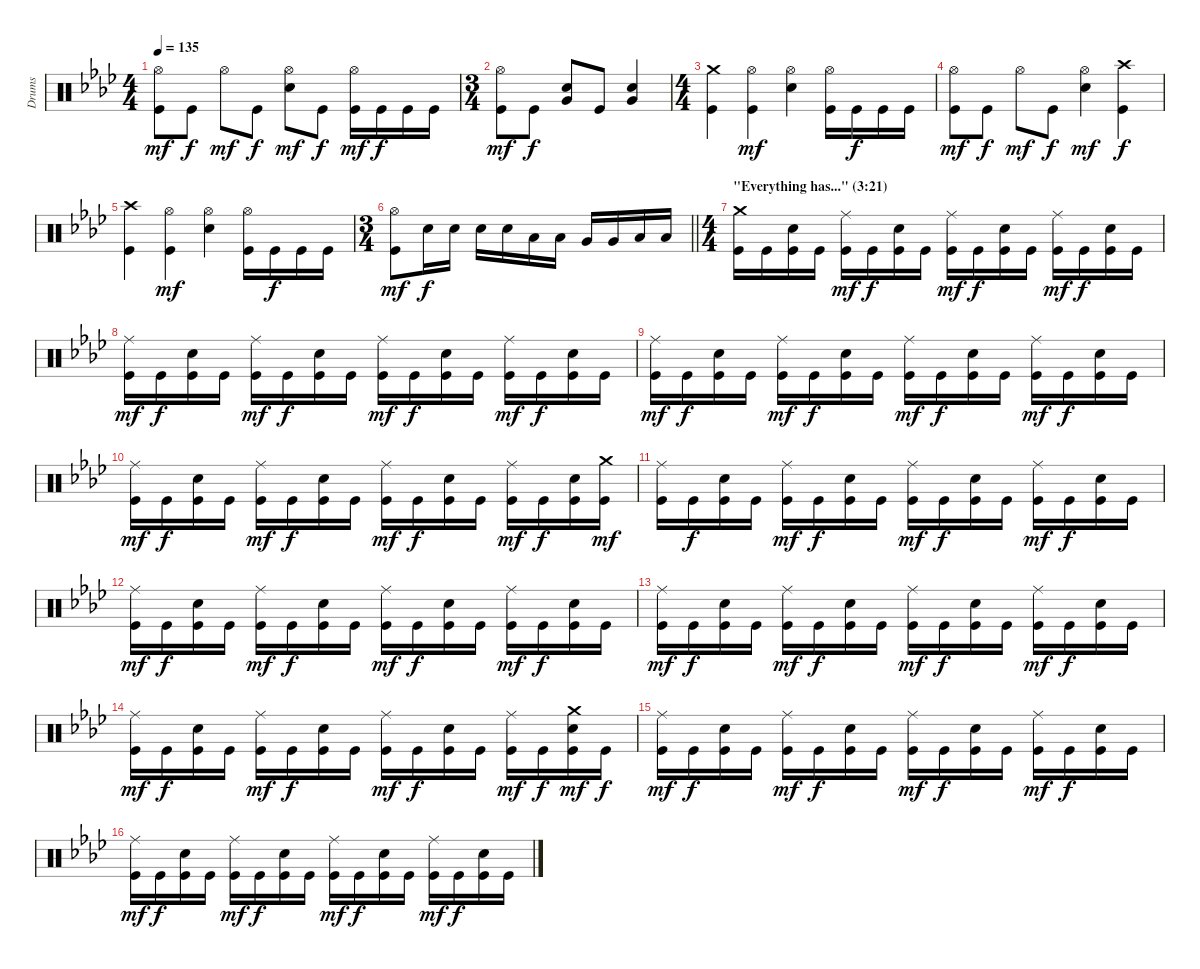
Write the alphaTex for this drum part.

\track ("Drums" "Drums") {instrument percussion}
\staff {score}
\articulation defaults
\ts (4 4)
\tempo 135
\clef neutral
\ks fminor
("Hi-Hat (open)" "Kick (hit)").8{dy mf} "Kick (hit)".8{dy f} "Hi-Hat (open)".8{dy mf} "Kick (hit)".8{dy f} ("Hi-Hat (open)" "Snare (hit) 2").8{dy mf} "Kick (hit)".8{dy f} ("Hi-Hat (open)" "Kick (hit)").16{dy mf} "Kick (hit)".16{dy f} "Kick (hit)".16 "Kick (hit)".16 |
\ts (3 4)
("Hi-Hat (open)" "Kick (hit)").8{dy mf} "Kick (hit)".8{dy f} ("Very Low Tom (hit)" "Snare (hit) 2").8 "Kick (hit)".8 ("Very Low Tom (hit)" "Snare (hit) 2").4 |
\ts (4 4)
("Crash medium (hit)" "Kick (hit)").4 ("Hi-Hat (open)" "Kick (hit)").4{dy mf} ("Hi-Hat (open)" "Snare (hit) 2").4 ("Hi-Hat (open)" "Kick (hit)").16 "Kick (hit)".16{dy f} "Kick (hit)".16 "Kick (hit)".16 |
("Hi-Hat (open)" "Kick (hit)").8{dy mf} "Kick (hit)".8{dy f} "Hi-Hat (open)".8{dy mf} "Kick (hit)".8{dy f} ("Hi-Hat (open)" "Snare (hit) 2").4{dy mf} ("Crash high (hit)" "Kick (hit)").4{dy f} |
("Crash high (hit)" "Kick (hit)").4 ("Hi-Hat (open)" "Kick (hit)").4{dy mf} ("Hi-Hat (open)" "Snare (hit) 2").4 ("Hi-Hat (open)" "Kick (hit)").16 "Kick (hit)".16{dy f} "Kick (hit)".16 "Kick (hit)".16 |
\ts (3 4)
\barLineRight lightlight
("Hi-Hat (open)" "Kick (hit)").8{dy mf} "Snare (hit) 2".16{dy f} "Snare (hit) 2".16 "Snare (hit) 2".16 "Snare (hit) 2".16 "Low Tom (hit)".16 "Low Tom (hit)".16 "Very Low Tom (hit)".16 "Very Low Tom (hit)".16 "Low Floor Tom (hit)".16 "Low Floor Tom (hit)".16 |
\ts (4 4)
\section ("" "\"Everything has...\" (3:21)")
("Crash medium (hit)" "Kick (hit)").16 "Kick (hit)".16 ("Snare (hit) 2" "Kick (hit)").16 "Kick (hit)".16 ("Ride (middle)" "Kick (hit)").16{dy mf} "Kick (hit)".16{dy f} ("Snare (hit) 2" "Kick (hit)").16 "Kick (hit)".16 ("Ride (middle)" "Kick (hit)").16{dy mf} "Kick (hit)".16{dy f} ("Snare (hit) 2" "Kick (hit)").16 "Kick (hit)".16 ("Ride (middle)" "Kick (hit)").16{dy mf} "Kick (hit)".16{dy f} ("Snare (hit) 2" "Kick (hit)").16 "Kick (hit)".16 |
("Ride (middle)" "Kick (hit)").16{dy mf} "Kick (hit)".16{dy f} ("Snare (hit) 2" "Kick (hit)").16 "Kick (hit)".16 ("Ride (middle)" "Kick (hit)").16{dy mf} "Kick (hit)".16{dy f} ("Snare (hit) 2" "Kick (hit)").16 "Kick (hit)".16 ("Ride (middle)" "Kick (hit)").16{dy mf} "Kick (hit)".16{dy f} ("Snare (hit) 2" "Kick (hit)").16 "Kick (hit)".16 ("Ride (middle)" "Kick (hit)").16{dy mf} "Kick (hit)".16{dy f} ("Snare (hit) 2" "Kick (hit)").16 "Kick (hit)".16 |
("Ride (middle)" "Kick (hit)").16{dy mf} "Kick (hit)".16{dy f} ("Snare (hit) 2" "Kick (hit)").16 "Kick (hit)".16 ("Ride (middle)" "Kick (hit)").16{dy mf} "Kick (hit)".16{dy f} ("Snare (hit) 2" "Kick (hit)").16 "Kick (hit)".16 ("Ride (middle)" "Kick (hit)").16{dy mf} "Kick (hit)".16{dy f} ("Snare (hit) 2" "Kick (hit)").16 "Kick (hit)".16 ("Ride (middle)" "Kick (hit)").16{dy mf} "Kick (hit)".16{dy f} ("Snare (hit) 2" "Kick (hit)").16 "Kick (hit)".16 |
("Ride (middle)" "Kick (hit)").16{dy mf} "Kick (hit)".16{dy f} ("Snare (hit) 2" "Kick (hit)").16 "Kick (hit)".16 ("Ride (middle)" "Kick (hit)").16{dy mf} "Kick (hit)".16{dy f} ("Snare (hit) 2" "Kick (hit)").16 "Kick (hit)".16 ("Ride (middle)" "Kick (hit)").16{dy mf} "Kick (hit)".16{dy f} ("Snare (hit) 2" "Kick (hit)").16 "Kick (hit)".16 ("Ride (middle)" "Kick (hit)").16{dy mf} "Kick (hit)".16{dy f} ("Snare (hit) 2" "Kick (hit)").16 ("Crash medium (hit)" "Kick (hit)").16{dy mf} |
("Ride (middle)" "Kick (hit)").16 "Kick (hit)".16{dy f} ("Snare (hit) 2" "Kick (hit)").16 "Kick (hit)".16 ("Ride (middle)" "Kick (hit)").16{dy mf} "Kick (hit)".16{dy f} ("Snare (hit) 2" "Kick (hit)").16 "Kick (hit)".16 ("Ride (middle)" "Kick (hit)").16{dy mf} "Kick (hit)".16{dy f} ("Snare (hit) 2" "Kick (hit)").16 "Kick (hit)".16 ("Ride (middle)" "Kick (hit)").16{dy mf} "Kick (hit)".16{dy f} ("Snare (hit) 2" "Kick (hit)").16 "Kick (hit)".16 |
("Ride (middle)" "Kick (hit)").16{dy mf} "Kick (hit)".16{dy f} ("Snare (hit) 2" "Kick (hit)").16 "Kick (hit)".16 ("Ride (middle)" "Kick (hit)").16{dy mf} "Kick (hit)".16{dy f} ("Snare (hit) 2" "Kick (hit)").16 "Kick (hit)".16 ("Ride (middle)" "Kick (hit)").16{dy mf} "Kick (hit)".16{dy f} ("Snare (hit) 2" "Kick (hit)").16 "Kick (hit)".16 ("Ride (middle)" "Kick (hit)").16{dy mf} "Kick (hit)".16{dy f} ("Snare (hit) 2" "Kick (hit)").16 "Kick (hit)".16 |
("Ride (middle)" "Kick (hit)").16{dy mf} "Kick (hit)".16{dy f} ("Snare (hit) 2" "Kick (hit)").16 "Kick (hit)".16 ("Ride (middle)" "Kick (hit)").16{dy mf} "Kick (hit)".16{dy f} ("Snare (hit) 2" "Kick (hit)").16 "Kick (hit)".16 ("Ride (middle)" "Kick (hit)").16{dy mf} "Kick (hit)".16{dy f} ("Snare (hit) 2" "Kick (hit)").16 "Kick (hit)".16 ("Ride (middle)" "Kick (hit)").16{dy mf} "Kick (hit)".16{dy f} ("Snare (hit) 2" "Kick (hit)").16 "Kick (hit)".16 |
("Ride (middle)" "Kick (hit)").16{dy mf} "Kick (hit)".16{dy f} ("Snare (hit) 2" "Kick (hit)").16 "Kick (hit)".16 ("Ride (middle)" "Kick (hit)").16{dy mf} "Kick (hit)".16{dy f} ("Snare (hit) 2" "Kick (hit)").16 "Kick (hit)".16 ("Ride (middle)" "Kick (hit)").16{dy mf} "Kick (hit)".16{dy f} ("Snare (hit) 2" "Kick (hit)").16 "Kick (hit)".16 ("Ride (middle)" "Kick (hit)").16{dy mf} "Kick (hit)".16{dy f} ("Crash medium (hit)" "Snare (hit) 2" "Kick (hit)").16{dy mf} "Kick (hit)".16{dy f} |
("Ride (middle)" "Kick (hit)").16{dy mf} "Kick (hit)".16{dy f} ("Snare (hit) 2" "Kick (hit)").16 "Kick (hit)".16 ("Ride (middle)" "Kick (hit)").16{dy mf} "Kick (hit)".16{dy f} ("Snare (hit) 2" "Kick (hit)").16 "Kick (hit)".16 ("Ride (middle)" "Kick (hit)").16{dy mf} "Kick (hit)".16{dy f} ("Snare (hit) 2" "Kick (hit)").16 "Kick (hit)".16 ("Ride (middle)" "Kick (hit)").16{dy mf} "Kick (hit)".16{dy f} ("Snare (hit) 2" "Kick (hit)").16 "Kick (hit)".16 |
("Ride (middle)" "Kick (hit)").16{dy mf} "Kick (hit)".16{dy f} ("Snare (hit) 2" "Kick (hit)").16 "Kick (hit)".16 ("Ride (middle)" "Kick (hit)").16{dy mf} "Kick (hit)".16{dy f} ("Snare (hit) 2" "Kick (hit)").16 "Kick (hit)".16 ("Ride (middle)" "Kick (hit)").16{dy mf} "Kick (hit)".16{dy f} ("Snare (hit) 2" "Kick (hit)").16 "Kick (hit)".16 ("Ride (middle)" "Kick (hit)").16{dy mf} "Kick (hit)".16{dy f} ("Snare (hit) 2" "Kick (hit)").16 "Kick (hit)".16
